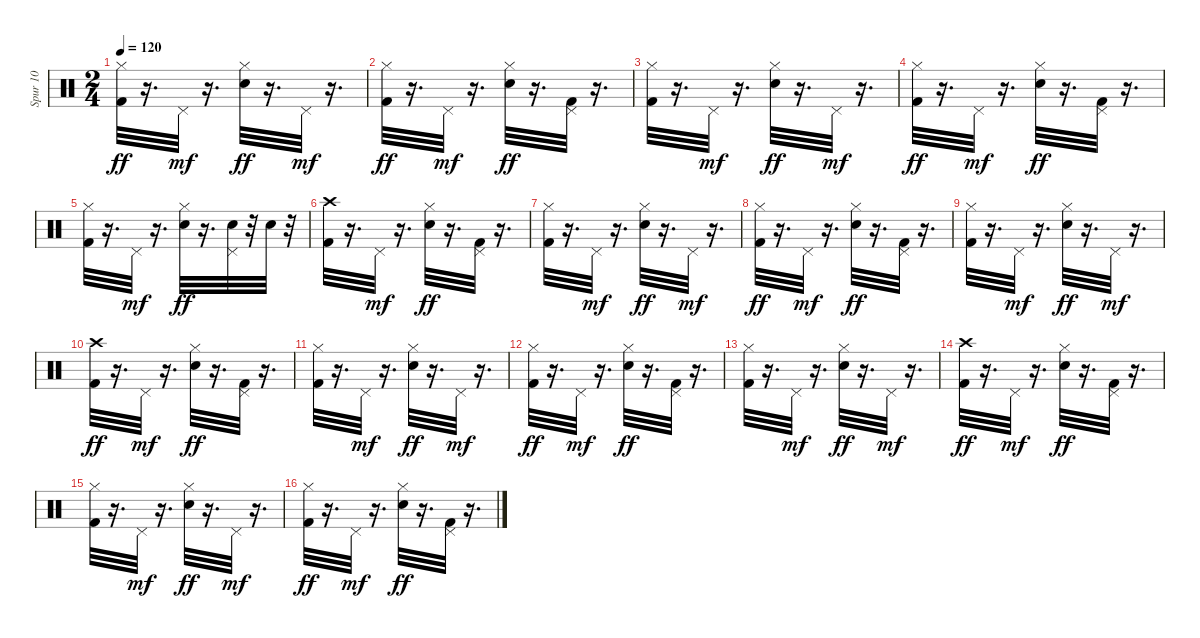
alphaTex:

\track ("Spur 10" "Spur 10") {instrument percussion}
\staff {score}
\articulation defaults
\ts (2 4)
\tempo 120
\clef neutral
\ks c
("Hi-Hat (closed)" "Kick (hit) 2").32{dy ff} r.16{d} "Pedal Hi-Hat (hit)".32{dy mf} r.16{d} ("Hi-Hat (closed)" "Snare (hit) 2").32{dy ff} r.16{d} "Pedal Hi-Hat (hit)".32{dy mf} r.16{d} |
("Hi-Hat (closed)" "Kick (hit) 2").32{dy ff} r.16{d} "Pedal Hi-Hat (hit)".32{dy mf} r.16{d} ("Hi-Hat (closed)" "Snare (hit) 2").32{dy ff} r.16{d} ("Pedal Hi-Hat (hit)" "Kick (hit) 2").32 r.16{d} |
("Hi-Hat (closed)" "Kick (hit) 2").32 r.16{d} "Pedal Hi-Hat (hit)".32{dy mf} r.16{d} ("Hi-Hat (closed)" "Snare (hit) 2").32{dy ff} r.16{d} "Pedal Hi-Hat (hit)".32{dy mf} r.16{d} |
("Hi-Hat (closed)" "Kick (hit) 2").32{dy ff} r.16{d} "Pedal Hi-Hat (hit)".32{dy mf} r.16{d} ("Hi-Hat (closed)" "Snare (hit) 2").32{dy ff} r.16{d} ("Pedal Hi-Hat (hit)" "Kick (hit) 2").32 r.16{d} |
("Hi-Hat (closed)" "Kick (hit) 2").32 r.16{d} "Pedal Hi-Hat (hit)".32{dy mf} r.16{d} ("Hi-Hat (closed)" "Snare (hit) 2").32{dy ff} r.16{d} ("Pedal Hi-Hat (hit)" "Snare (hit) 2").32 r.32 "Snare (hit) 2".32 r.32 |
("Crash high (hit)" "Kick (hit) 2").32 r.16{d} "Pedal Hi-Hat (hit)".32{dy mf} r.16{d} ("Hi-Hat (closed)" "Snare (hit) 2").32{dy ff} r.16{d} ("Pedal Hi-Hat (hit)" "Kick (hit) 2").32 r.16{d} |
("Hi-Hat (closed)" "Kick (hit) 2").32 r.16{d} "Pedal Hi-Hat (hit)".32{dy mf} r.16{d} ("Hi-Hat (closed)" "Snare (hit) 2").32{dy ff} r.16{d} "Pedal Hi-Hat (hit)".32{dy mf} r.16{d} |
("Hi-Hat (closed)" "Kick (hit) 2").32{dy ff} r.16{d} "Pedal Hi-Hat (hit)".32{dy mf} r.16{d} ("Hi-Hat (closed)" "Snare (hit) 2").32{dy ff} r.16{d} ("Pedal Hi-Hat (hit)" "Kick (hit) 2").32 r.16{d} |
("Hi-Hat (closed)" "Kick (hit) 2").32 r.16{d} "Pedal Hi-Hat (hit)".32{dy mf} r.16{d} ("Hi-Hat (closed)" "Snare (hit) 2").32{dy ff} r.16{d} "Pedal Hi-Hat (hit)".32{dy mf} r.16{d} |
("Crash high (hit)" "Kick (hit) 2").32{dy ff} r.16{d} "Pedal Hi-Hat (hit)".32{dy mf} r.16{d} ("Hi-Hat (closed)" "Snare (hit) 2").32{dy ff} r.16{d} ("Pedal Hi-Hat (hit)" "Kick (hit) 2").32 r.16{d} |
("Hi-Hat (closed)" "Kick (hit) 2").32 r.16{d} "Pedal Hi-Hat (hit)".32{dy mf} r.16{d} ("Hi-Hat (closed)" "Snare (hit) 2").32{dy ff} r.16{d} "Pedal Hi-Hat (hit)".32{dy mf} r.16{d} |
("Hi-Hat (closed)" "Kick (hit) 2").32{dy ff} r.16{d} "Pedal Hi-Hat (hit)".32{dy mf} r.16{d} ("Hi-Hat (closed)" "Snare (hit) 2").32{dy ff} r.16{d} ("Pedal Hi-Hat (hit)" "Kick (hit) 2").32 r.16{d} |
("Hi-Hat (closed)" "Kick (hit) 2").32 r.16{d} "Pedal Hi-Hat (hit)".32{dy mf} r.16{d} ("Hi-Hat (closed)" "Snare (hit) 2").32{dy ff} r.16{d} "Pedal Hi-Hat (hit)".32{dy mf} r.16{d} |
("Crash high (hit)" "Kick (hit) 2").32{dy ff} r.16{d} "Pedal Hi-Hat (hit)".32{dy mf} r.16{d} ("Hi-Hat (closed)" "Snare (hit) 2").32{dy ff} r.16{d} ("Pedal Hi-Hat (hit)" "Kick (hit) 2").32 r.16{d} |
("Hi-Hat (closed)" "Kick (hit) 2").32 r.16{d} "Pedal Hi-Hat (hit)".32{dy mf} r.16{d} ("Hi-Hat (closed)" "Snare (hit) 2").32{dy ff} r.16{d} "Pedal Hi-Hat (hit)".32{dy mf} r.16{d} |
("Hi-Hat (closed)" "Kick (hit) 2").32{dy ff} r.16{d} "Pedal Hi-Hat (hit)".32{dy mf} r.16{d} ("Hi-Hat (closed)" "Snare (hit) 2").32{dy ff} r.16{d} ("Pedal Hi-Hat (hit)" "Kick (hit) 2").32 r.16{d}
